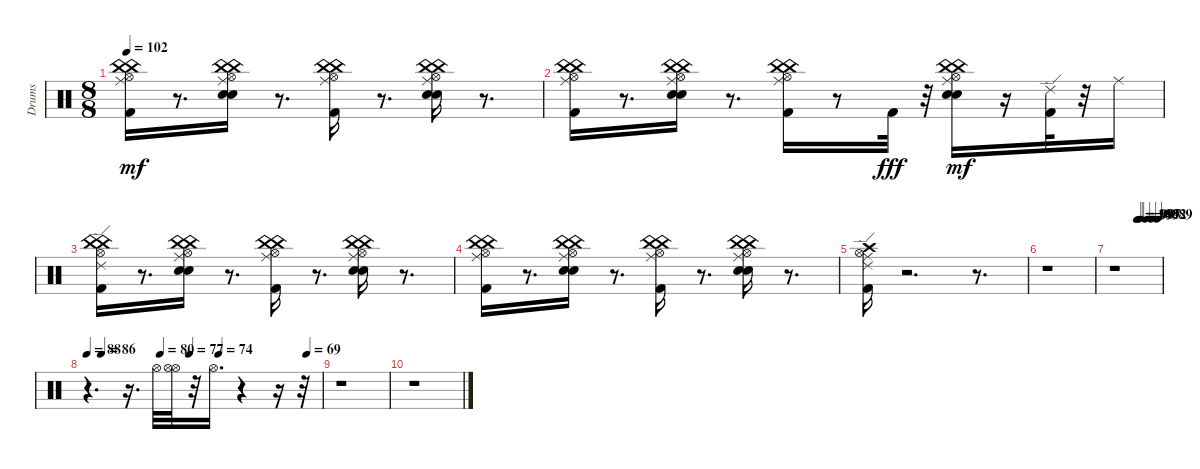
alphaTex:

\track ("Drums" "Drums") {instrument percussion}
\staff {score}
\articulation defaults
\ts (8 8)
\tempo 102
\clef neutral
\ks c
("China (hit)" "Kick (hit) 2" "China (hit)" "Hi-Hat (open)" "Ride (middle)").16{dy mf} r.8{d} ("Electric Snare (hit)" "China (hit)" "Snare (hit) 2" "China (hit)" "Hi-Hat (open)" "Ride (middle)").16 r.8{d} ("Kick (hit) 2" "China (hit)" "China (hit)" "Hi-Hat (open)" "Ride (middle)").16 r.8{d} ("Electric Snare (hit)" "China (hit)" "Snare (hit) 2" "Hi-Hat (open)" "China (hit)" "Ride (middle)").16 r.8{d} |
("China (hit)" "Kick (hit) 2" "China (hit)" "Hi-Hat (open)" "Ride (middle)").16 r.8{d} ("Electric Snare (hit)" "China (hit)" "Snare (hit) 2" "China (hit)" "Hi-Hat (open)" "Ride (middle)").16 r.8{d} ("Kick (hit) 2" "China (hit)" "China (hit)" "Hi-Hat (open)" "Ride (middle)").16 r.8 "Kick (hit) 2".32{dy fff} r.32 ("Electric Snare (hit)" "China (hit)" "Snare (hit) 2" "China (hit)" "Hi-Hat (open)" "Ride (middle)").16{dy mf} r.16 ("Kick (hit) 2" "Ride (edge) 2").32 r.32 "Ride (middle)".16 |
("China (hit)" "Kick (hit) 2" "China (hit)" "Hi-Hat (open)" "Ride (edge) 2").16 r.8{d} ("Electric Snare (hit)" "China (hit)" "Snare (hit) 2" "Hi-Hat (open)" "China (hit)" "Ride (middle)").16 r.8{d} ("Kick (hit) 2" "China (hit)" "Hi-Hat (open)" "China (hit)" "Ride (middle)").16 r.8{d} ("Electric Snare (hit)" "China (hit)" "Snare (hit) 2" "China (hit)" "Hi-Hat (open)" "Ride (middle)").16 r.8{d} |
("Kick (hit) 2" "China (hit)" "China (hit)" "Hi-Hat (open)" "Ride (middle)").16 r.8{d} ("Electric Snare (hit)" "China (hit)" "Snare (hit) 2" "China (hit)" "Hi-Hat (open)" "Ride (middle)").16 r.8{d} ("Kick (hit) 2" "China (hit)" "China (hit)" "Hi-Hat (open)" "Ride (middle)").16 r.8{d} ("Electric Snare (hit)" "China (hit)" "Snare (hit) 2" "China (hit)" "Hi-Hat (open)" "Ride (middle)").16 r.8{d} |
("Crash high (hit)" "Kick (hit) 2" "Hi-Hat (open)" "Ride (middle)" "Ride (edge) 2").16 r.2{d} r.8{d} |
r.1 |
\tempo (100 0.5)
\tempo (99 0.53125)
\tempo (98 0.5625)
\tempo (95 0.6875)
\tempo (92 0.8125)
\tempo (89 0.9375)
r.1 |
\tempo 88
\tempo (86 0.0625)
\tempo (80 0.3125)
\tempo (77 0.4375)
\tempo (74 0.5625)
\tempo (69 0.9375)
r.4{d} r.16{d} "Hi-Hat (open)".32 ("Hi-Hat (open)" "Hi-Hat (open)").32 r.32 "Hi-Hat (open)".16{d} r.4 r.16 r.32 |
r.1 |
r.1
